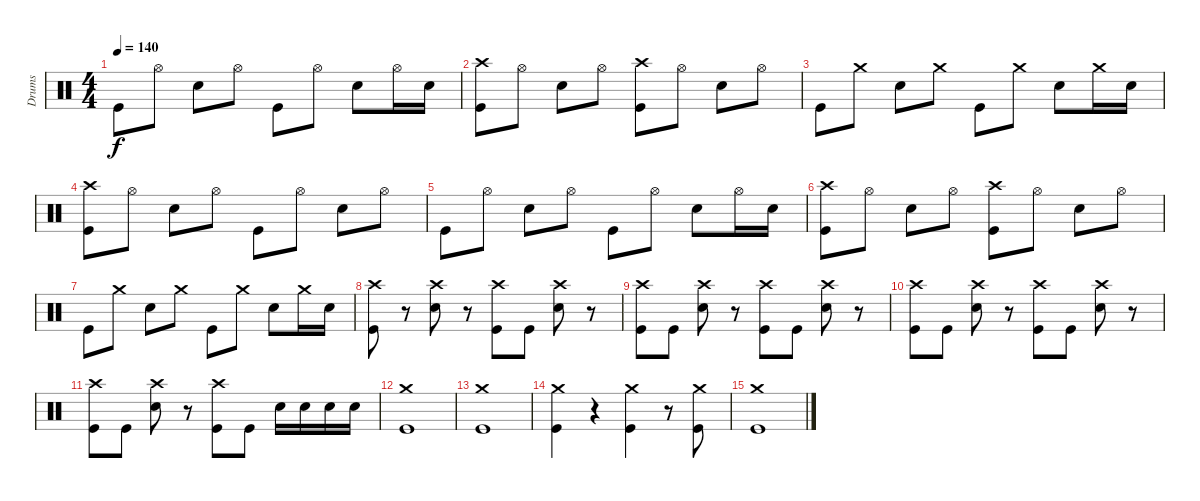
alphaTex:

\track ("Drums" "Drums") {instrument percussion}
\staff {score}
\articulation defaults
\ts (4 4)
\tempo 140
\clef neutral
\ks c "Kick (hit)".8{dy f} "Hi-Hat (open)".8 "Electric Snare (hit)".8 "Hi-Hat (open)".8 "Kick (hit)".8 "Hi-Hat (open)".8 "Electric Snare (hit)".8 "Hi-Hat (open)".16 "Electric Snare (hit)".16
|
("Crash high (hit)" "Kick (hit)").8 "Hi-Hat (open)".8 "Electric Snare (hit)".8 "Hi-Hat (open)".8 ("Crash high (hit)" "Kick (hit)").8 "Hi-Hat (open)".8 "Electric Snare (hit)".8 "Hi-Hat (open)".8 |
"Kick (hit)".8 "Crash medium (hit)".8 "Electric Snare (hit)".8 "Crash medium (hit)".8 "Kick (hit)".8 "Crash medium (hit)".8 "Electric Snare (hit)".8 "Crash medium (hit)".16 "Electric Snare (hit)".16 |
("Crash high (hit)" "Kick (hit)").8 "Hi-Hat (open)".8 "Electric Snare (hit)".8 "Hi-Hat (open)".8 "Kick (hit)".8 "Hi-Hat (open)".8 "Electric Snare (hit)".8 "Hi-Hat (open)".8 |
"Kick (hit)".8 "Hi-Hat (open)".8 "Electric Snare (hit)".8 "Hi-Hat (open)".8 "Kick (hit)".8 "Hi-Hat (open)".8 "Electric Snare (hit)".8 "Hi-Hat (open)".16 "Electric Snare (hit)".16 |
("Crash high (hit)" "Kick (hit)").8 "Hi-Hat (open)".8 "Electric Snare (hit)".8 "Hi-Hat (open)".8 ("Crash high (hit)" "Kick (hit)").8 "Hi-Hat (open)".8 "Electric Snare (hit)".8 "Hi-Hat (open)".8 |
"Kick (hit)".8 "Crash medium (hit)".8 "Electric Snare (hit)".8 "Crash medium (hit)".8 "Kick (hit)".8 "Crash medium (hit)".8 "Electric Snare (hit)".8 "Crash medium (hit)".16 "Electric Snare (hit)".16 |
("Crash high (hit)" "Kick (hit)").8 r.8 ("Electric Snare (hit)" "Crash high (hit)").8 r.8 ("Crash high (hit)" "Kick (hit)").8 "Kick (hit)".8 ("Electric Snare (hit)" "Crash high (hit)").8 r.8 |
("Crash high (hit)" "Kick (hit)").8 "Kick (hit)".8 ("Electric Snare (hit)" "Crash high (hit)").8 r.8 ("Crash high (hit)" "Kick (hit)").8 "Kick (hit)".8 ("Crash high (hit)" "Electric Snare (hit)").8 r.8 |
("Crash high (hit)" "Kick (hit)").8 "Kick (hit)".8 ("Electric Snare (hit)" "Crash high (hit)").8 r.8 ("Crash high (hit)" "Kick (hit)").8 "Kick (hit)".8 ("Electric Snare (hit)" "Crash high (hit)").8 r.8 |
("Crash high (hit)" "Kick (hit)").8 "Kick (hit)".8 ("Electric Snare (hit)" "Crash high (hit)").8 r.8 ("Crash high (hit)" "Kick (hit)").8 "Kick (hit)".8 "Electric Snare (hit)".16 "Electric Snare (hit)".16 "Electric Snare (hit)".16 "Electric Snare (hit)".16 |
("Crash medium (hit)" "Kick (hit)").1 |
("Crash medium (hit)" "Kick (hit)").1 |
("Crash medium (hit)" "Kick (hit)").4 r.4 ("Crash medium (hit)" "Kick (hit)").4 r.8 ("Crash medium (hit)" "Kick (hit)").8 |
("Crash medium (hit)" "Kick (hit)").1
